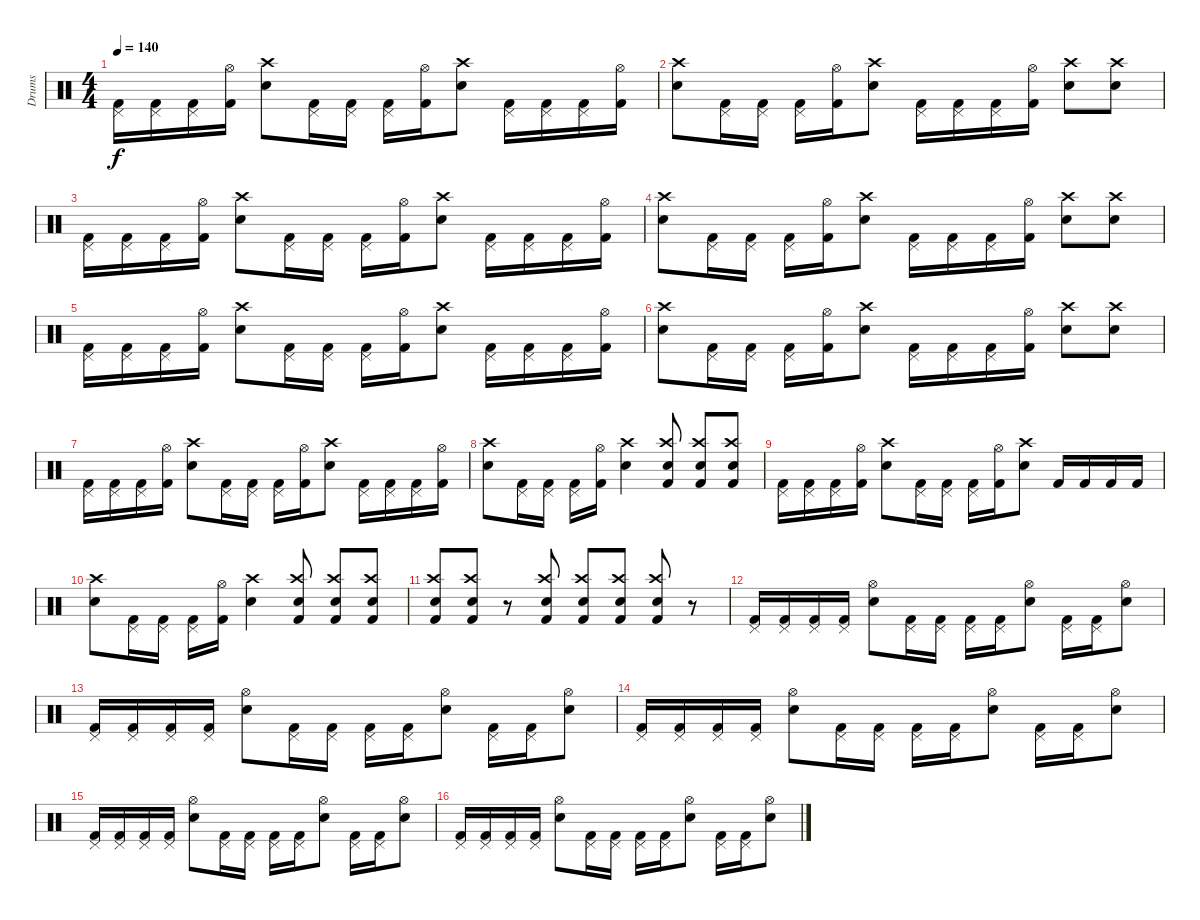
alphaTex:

\track ("Drums" "Drums") {instrument percussion}
\staff {score}
\articulation defaults
\ts (4 4)
\tempo 140
\clef neutral
\ks c
("Pedal Hi-Hat (hit)" "Kick (hit) 2").16{dy f} ("Pedal Hi-Hat (hit)" "Kick (hit) 2").16 ("Pedal Hi-Hat (hit)" "Kick (hit) 2").16 ("Hi-Hat (open)" "Kick (hit) 2").16 ("Crash high (hit)" "Electric Snare (hit)").8 ("Pedal Hi-Hat (hit)" "Kick (hit) 2").16 ("Pedal Hi-Hat (hit)" "Kick (hit) 2").16 ("Pedal Hi-Hat (hit)" "Kick (hit) 2").16 ("Hi-Hat (open)" "Kick (hit) 2").16 ("Crash high (hit)" "Electric Snare (hit)").8 ("Pedal Hi-Hat (hit)" "Kick (hit) 2").16 ("Pedal Hi-Hat (hit)" "Kick (hit) 2").16 ("Pedal Hi-Hat (hit)" "Kick (hit) 2").16 ("Hi-Hat (open)" "Kick (hit) 2").16 |
("Crash high (hit)" "Electric Snare (hit)").8 ("Pedal Hi-Hat (hit)" "Kick (hit) 2").16 ("Pedal Hi-Hat (hit)" "Kick (hit) 2").16 ("Pedal Hi-Hat (hit)" "Kick (hit) 2").16 ("Hi-Hat (open)" "Kick (hit) 2").16 ("Crash high (hit)" "Electric Snare (hit)").8 ("Pedal Hi-Hat (hit)" "Kick (hit) 2").16 ("Pedal Hi-Hat (hit)" "Kick (hit) 2").16 ("Pedal Hi-Hat (hit)" "Kick (hit) 2").16 ("Hi-Hat (open)" "Kick (hit) 2").16 ("Crash high (hit)" "Electric Snare (hit)").8 ("Crash high (hit)" "Electric Snare (hit)").8 |
("Pedal Hi-Hat (hit)" "Kick (hit) 2").16 ("Pedal Hi-Hat (hit)" "Kick (hit) 2").16 ("Pedal Hi-Hat (hit)" "Kick (hit) 2").16 ("Hi-Hat (open)" "Kick (hit) 2").16 ("Crash high (hit)" "Electric Snare (hit)").8 ("Pedal Hi-Hat (hit)" "Kick (hit) 2").16 ("Pedal Hi-Hat (hit)" "Kick (hit) 2").16 ("Pedal Hi-Hat (hit)" "Kick (hit) 2").16 ("Hi-Hat (open)" "Kick (hit) 2").16 ("Crash high (hit)" "Electric Snare (hit)").8 ("Pedal Hi-Hat (hit)" "Kick (hit) 2").16 ("Pedal Hi-Hat (hit)" "Kick (hit) 2").16 ("Pedal Hi-Hat (hit)" "Kick (hit) 2").16 ("Hi-Hat (open)" "Kick (hit) 2").16 |
("Crash high (hit)" "Electric Snare (hit)").8 ("Pedal Hi-Hat (hit)" "Kick (hit) 2").16 ("Pedal Hi-Hat (hit)" "Kick (hit) 2").16 ("Pedal Hi-Hat (hit)" "Kick (hit) 2").16 ("Hi-Hat (open)" "Kick (hit) 2").16 ("Crash high (hit)" "Electric Snare (hit)").8 ("Pedal Hi-Hat (hit)" "Kick (hit) 2").16 ("Pedal Hi-Hat (hit)" "Kick (hit) 2").16 ("Pedal Hi-Hat (hit)" "Kick (hit) 2").16 ("Hi-Hat (open)" "Kick (hit) 2").16 ("Crash high (hit)" "Electric Snare (hit)").8 ("Crash high (hit)" "Electric Snare (hit)").8 |
("Pedal Hi-Hat (hit)" "Kick (hit) 2").16 ("Pedal Hi-Hat (hit)" "Kick (hit) 2").16 ("Pedal Hi-Hat (hit)" "Kick (hit) 2").16 ("Hi-Hat (open)" "Kick (hit) 2").16 ("Crash high (hit)" "Electric Snare (hit)").8 ("Pedal Hi-Hat (hit)" "Kick (hit) 2").16 ("Pedal Hi-Hat (hit)" "Kick (hit) 2").16 ("Pedal Hi-Hat (hit)" "Kick (hit) 2").16 ("Hi-Hat (open)" "Kick (hit) 2").16 ("Crash high (hit)" "Electric Snare (hit)").8 ("Pedal Hi-Hat (hit)" "Kick (hit) 2").16 ("Pedal Hi-Hat (hit)" "Kick (hit) 2").16 ("Pedal Hi-Hat (hit)" "Kick (hit) 2").16 ("Hi-Hat (open)" "Kick (hit) 2").16 |
("Crash high (hit)" "Electric Snare (hit)").8 ("Pedal Hi-Hat (hit)" "Kick (hit) 2").16 ("Pedal Hi-Hat (hit)" "Kick (hit) 2").16 ("Pedal Hi-Hat (hit)" "Kick (hit) 2").16 ("Hi-Hat (open)" "Kick (hit) 2").16 ("Crash high (hit)" "Electric Snare (hit)").8 ("Pedal Hi-Hat (hit)" "Kick (hit) 2").16 ("Pedal Hi-Hat (hit)" "Kick (hit) 2").16 ("Pedal Hi-Hat (hit)" "Kick (hit) 2").16 ("Hi-Hat (open)" "Kick (hit) 2").16 ("Crash high (hit)" "Electric Snare (hit)").8 ("Crash high (hit)" "Electric Snare (hit)").8 |
("Pedal Hi-Hat (hit)" "Kick (hit) 2").16 ("Pedal Hi-Hat (hit)" "Kick (hit) 2").16 ("Pedal Hi-Hat (hit)" "Kick (hit) 2").16 ("Hi-Hat (open)" "Kick (hit) 2").16 ("Crash high (hit)" "Electric Snare (hit)").8 ("Pedal Hi-Hat (hit)" "Kick (hit) 2").16 ("Pedal Hi-Hat (hit)" "Kick (hit) 2").16 ("Pedal Hi-Hat (hit)" "Kick (hit) 2").16 ("Hi-Hat (open)" "Kick (hit) 2").16 ("Crash high (hit)" "Electric Snare (hit)").8 ("Pedal Hi-Hat (hit)" "Kick (hit) 2").16 ("Pedal Hi-Hat (hit)" "Kick (hit) 2").16 ("Pedal Hi-Hat (hit)" "Kick (hit) 2").16 ("Hi-Hat (open)" "Kick (hit) 2").16 |
("Crash high (hit)" "Electric Snare (hit)").8 ("Pedal Hi-Hat (hit)" "Kick (hit) 2").16 ("Pedal Hi-Hat (hit)" "Kick (hit) 2").16 ("Pedal Hi-Hat (hit)" "Kick (hit) 2").16 ("Hi-Hat (open)" "Kick (hit) 2").16 ("Crash high (hit)" "Electric Snare (hit)").4 ("Crash high (hit)" "Electric Snare (hit)" "Kick (hit) 2").8 ("Crash high (hit)" "Electric Snare (hit)" "Kick (hit) 2").8 ("Crash high (hit)" "Electric Snare (hit)" "Kick (hit) 2").8 |
("Pedal Hi-Hat (hit)" "Kick (hit) 2").16 ("Pedal Hi-Hat (hit)" "Kick (hit) 2").16 ("Pedal Hi-Hat (hit)" "Kick (hit) 2").16 ("Hi-Hat (open)" "Kick (hit) 2").16 ("Crash high (hit)" "Electric Snare (hit)").8 ("Pedal Hi-Hat (hit)" "Kick (hit) 2").16 ("Pedal Hi-Hat (hit)" "Kick (hit) 2").16 ("Pedal Hi-Hat (hit)" "Kick (hit) 2").16 ("Hi-Hat (open)" "Kick (hit) 2").16 ("Crash high (hit)" "Electric Snare (hit)").8 "Kick (hit) 2".16 "Kick (hit) 2".16 "Kick (hit) 2".16 "Kick (hit) 2".16 |
("Crash high (hit)" "Electric Snare (hit)").8 ("Pedal Hi-Hat (hit)" "Kick (hit) 2").16 ("Pedal Hi-Hat (hit)" "Kick (hit) 2").16 ("Pedal Hi-Hat (hit)" "Kick (hit) 2").16 ("Hi-Hat (open)" "Kick (hit) 2").16 ("Crash high (hit)" "Electric Snare (hit)").4 ("Crash high (hit)" "Electric Snare (hit)" "Kick (hit) 2").8 ("Crash high (hit)" "Electric Snare (hit)" "Kick (hit) 2").8 ("Crash high (hit)" "Electric Snare (hit)" "Kick (hit) 2").8 |
("Crash high (hit)" "Electric Snare (hit)" "Kick (hit) 2").8 ("Crash high (hit)" "Electric Snare (hit)" "Kick (hit) 2").8 r.8 ("Crash high (hit)" "Electric Snare (hit)" "Kick (hit) 2").8 ("Crash high (hit)" "Electric Snare (hit)" "Kick (hit) 2").8 ("Crash high (hit)" "Electric Snare (hit)" "Kick (hit) 2").8 ("Crash high (hit)" "Electric Snare (hit)" "Kick (hit) 2").8 r.8 |
("Pedal Hi-Hat (hit)" "Kick (hit) 2").16 ("Pedal Hi-Hat (hit)" "Kick (hit) 2").16 ("Pedal Hi-Hat (hit)" "Kick (hit) 2").16 ("Pedal Hi-Hat (hit)" "Kick (hit) 2").16 ("Hi-Hat (open)" "Electric Snare (hit)").8 ("Pedal Hi-Hat (hit)" "Kick (hit) 2").16 ("Pedal Hi-Hat (hit)" "Kick (hit) 2").16 ("Pedal Hi-Hat (hit)" "Kick (hit) 2").16 ("Pedal Hi-Hat (hit)" "Kick (hit) 2").16 ("Hi-Hat (open)" "Electric Snare (hit)").8 ("Pedal Hi-Hat (hit)" "Kick (hit) 2").16 ("Pedal Hi-Hat (hit)" "Kick (hit) 2").16 ("Hi-Hat (open)" "Electric Snare (hit)").8 |
("Pedal Hi-Hat (hit)" "Kick (hit) 2").16 ("Pedal Hi-Hat (hit)" "Kick (hit) 2").16 ("Pedal Hi-Hat (hit)" "Kick (hit) 2").16 ("Pedal Hi-Hat (hit)" "Kick (hit) 2").16 ("Hi-Hat (open)" "Electric Snare (hit)").8 ("Pedal Hi-Hat (hit)" "Kick (hit) 2").16 ("Pedal Hi-Hat (hit)" "Kick (hit) 2").16 ("Pedal Hi-Hat (hit)" "Kick (hit) 2").16 ("Pedal Hi-Hat (hit)" "Kick (hit) 2").16 ("Hi-Hat (open)" "Electric Snare (hit)").8 ("Pedal Hi-Hat (hit)" "Kick (hit) 2").16 ("Pedal Hi-Hat (hit)" "Kick (hit) 2").16 ("Hi-Hat (open)" "Electric Snare (hit)").8 |
("Pedal Hi-Hat (hit)" "Kick (hit) 2").16 ("Pedal Hi-Hat (hit)" "Kick (hit) 2").16 ("Pedal Hi-Hat (hit)" "Kick (hit) 2").16 ("Pedal Hi-Hat (hit)" "Kick (hit) 2").16 ("Hi-Hat (open)" "Electric Snare (hit)").8 ("Pedal Hi-Hat (hit)" "Kick (hit) 2").16 ("Pedal Hi-Hat (hit)" "Kick (hit) 2").16 ("Pedal Hi-Hat (hit)" "Kick (hit) 2").16 ("Pedal Hi-Hat (hit)" "Kick (hit) 2").16 ("Hi-Hat (open)" "Electric Snare (hit)").8 ("Pedal Hi-Hat (hit)" "Kick (hit) 2").16 ("Pedal Hi-Hat (hit)" "Kick (hit) 2").16 ("Hi-Hat (open)" "Electric Snare (hit)").8 |
("Pedal Hi-Hat (hit)" "Kick (hit) 2").16 ("Pedal Hi-Hat (hit)" "Kick (hit) 2").16 ("Pedal Hi-Hat (hit)" "Kick (hit) 2").16 ("Pedal Hi-Hat (hit)" "Kick (hit) 2").16 ("Hi-Hat (open)" "Electric Snare (hit)").8 ("Pedal Hi-Hat (hit)" "Kick (hit) 2").16 ("Pedal Hi-Hat (hit)" "Kick (hit) 2").16 ("Pedal Hi-Hat (hit)" "Kick (hit) 2").16 ("Pedal Hi-Hat (hit)" "Kick (hit) 2").16 ("Hi-Hat (open)" "Electric Snare (hit)").8 ("Pedal Hi-Hat (hit)" "Kick (hit) 2").16 ("Pedal Hi-Hat (hit)" "Kick (hit) 2").16 ("Hi-Hat (open)" "Electric Snare (hit)").8 |
("Pedal Hi-Hat (hit)" "Kick (hit) 2").16 ("Pedal Hi-Hat (hit)" "Kick (hit) 2").16 ("Pedal Hi-Hat (hit)" "Kick (hit) 2").16 ("Pedal Hi-Hat (hit)" "Kick (hit) 2").16 ("Hi-Hat (open)" "Electric Snare (hit)").8 ("Pedal Hi-Hat (hit)" "Kick (hit) 2").16 ("Pedal Hi-Hat (hit)" "Kick (hit) 2").16 ("Pedal Hi-Hat (hit)" "Kick (hit) 2").16 ("Pedal Hi-Hat (hit)" "Kick (hit) 2").16 ("Hi-Hat (open)" "Electric Snare (hit)").8 ("Pedal Hi-Hat (hit)" "Kick (hit) 2").16 ("Pedal Hi-Hat (hit)" "Kick (hit) 2").16 ("Hi-Hat (open)" "Electric Snare (hit)").8
